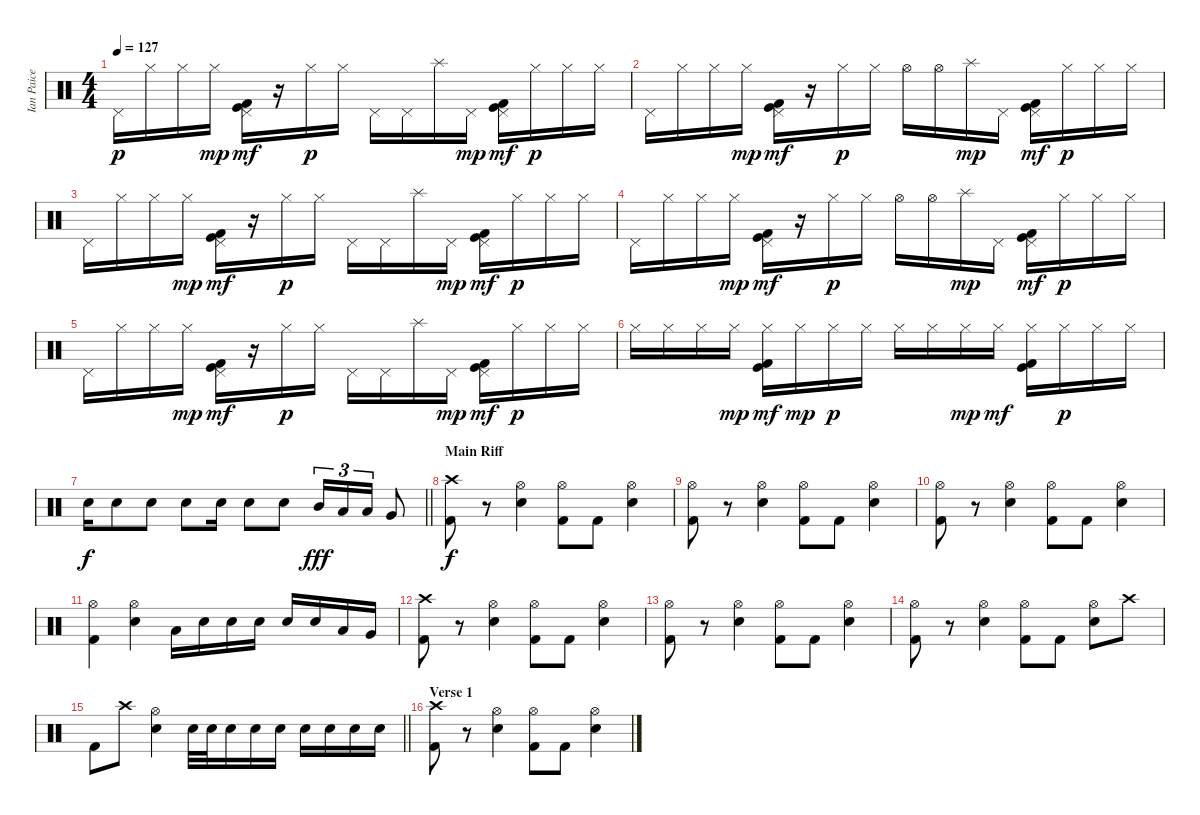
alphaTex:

\track ("Ian Paice" "Ian Paice") {instrument percussion}
\staff {score}
\articulation defaults
\ts (4 4)
\tempo 127
\clef neutral
\ks c "Pedal Hi-Hat (hit)".16{dy p} "Hi-Hat (closed)".16 "Hi-Hat (closed)".16 "Hi-Hat (closed)".16{dy mp}
("Pedal Hi-Hat (hit)" "Kick (hit)" "Kick (hit) 2").16{dy mf} r.16 "Hi-Hat (closed)".16{dy p} "Hi-Hat (closed)".16 "Pedal Hi-Hat (hit)".16 "Pedal Hi-Hat (hit)".16 "Splash (hit)".16 "Pedal Hi-Hat (hit)".16{dy mp} ("Pedal Hi-Hat (hit)" "Kick (hit)" "Kick (hit) 2").16{dy mf} "Hi-Hat (closed)".16{dy p} "Hi-Hat (closed)".16 "Hi-Hat (closed)".16 |
"Pedal Hi-Hat (hit)".16 "Hi-Hat (closed)".16 "Hi-Hat (closed)".16 "Hi-Hat (closed)".16{dy mp} ("Pedal Hi-Hat (hit)" "Kick (hit)" "Kick (hit) 2").16{dy mf} r.16 "Hi-Hat (closed)".16{dy p} "Hi-Hat (closed)".16 "Hi-Hat (open)".16 "Hi-Hat (open)".16 "Splash (hit)".16{dy mp} "Pedal Hi-Hat (hit)".16 ("Pedal Hi-Hat (hit)" "Kick (hit)" "Kick (hit) 2").16{dy mf} "Hi-Hat (closed)".16{dy p} "Hi-Hat (closed)".16 "Hi-Hat (closed)".16 |
"Pedal Hi-Hat (hit)".16 "Hi-Hat (closed)".16 "Hi-Hat (closed)".16 "Hi-Hat (closed)".16{dy mp} ("Pedal Hi-Hat (hit)" "Kick (hit)" "Kick (hit) 2").16{dy mf} r.16 "Hi-Hat (closed)".16{dy p} "Hi-Hat (closed)".16 "Pedal Hi-Hat (hit)".16 "Pedal Hi-Hat (hit)".16 "Splash (hit)".16 "Pedal Hi-Hat (hit)".16{dy mp} ("Pedal Hi-Hat (hit)" "Kick (hit)" "Kick (hit) 2").16{dy mf} "Hi-Hat (closed)".16{dy p} "Hi-Hat (closed)".16 "Hi-Hat (closed)".16 |
"Pedal Hi-Hat (hit)".16 "Hi-Hat (closed)".16 "Hi-Hat (closed)".16 "Hi-Hat (closed)".16{dy mp} ("Pedal Hi-Hat (hit)" "Kick (hit)" "Kick (hit) 2").16{dy mf} r.16 "Hi-Hat (closed)".16{dy p} "Hi-Hat (closed)".16 "Hi-Hat (open)".16 "Hi-Hat (open)".16 "Splash (hit)".16{dy mp} "Pedal Hi-Hat (hit)".16 ("Pedal Hi-Hat (hit)" "Kick (hit)" "Kick (hit) 2").16{dy mf} "Hi-Hat (closed)".16{dy p} "Hi-Hat (closed)".16 "Hi-Hat (closed)".16 |
"Pedal Hi-Hat (hit)".16 "Hi-Hat (closed)".16 "Hi-Hat (closed)".16 "Hi-Hat (closed)".16{dy mp} ("Pedal Hi-Hat (hit)" "Kick (hit)" "Kick (hit) 2").16{dy mf} r.16 "Hi-Hat (closed)".16{dy p} "Hi-Hat (closed)".16 "Pedal Hi-Hat (hit)".16 "Pedal Hi-Hat (hit)".16 "Splash (hit)".16 "Pedal Hi-Hat (hit)".16{dy mp} ("Pedal Hi-Hat (hit)" "Kick (hit)" "Kick (hit) 2").16{dy mf} "Hi-Hat (closed)".16{dy p} "Hi-Hat (closed)".16 "Hi-Hat (closed)".16 |
"Hi-Hat (closed)".16 "Hi-Hat (closed)".16 "Hi-Hat (closed)".16 "Hi-Hat (closed)".16{dy mp} ("Hi-Hat (closed)" "Kick (hit)" "Kick (hit) 2").16{dy mf} "Hi-Hat (closed)".16{dy mp} "Hi-Hat (closed)".16{dy p} "Hi-Hat (closed)".16 "Hi-Hat (closed)".16 "Hi-Hat (closed)".16 "Hi-Hat (closed)".16{dy mp} "Hi-Hat (closed)".16{dy mf} ("Hi-Hat (closed)" "Kick (hit)" "Kick (hit) 2").16 "Hi-Hat (closed)".16{dy p} "Hi-Hat (closed)".16 "Hi-Hat (closed)".16 |
\barLineRight lightlight "Snare (hit) 2".16{dy f} "Snare (hit) 2".8 "Snare (hit) 2".8 "Snare (hit) 2".8 "Snare (hit) 2".16 "Snare (hit) 2".8 "Snare (hit) 2".8 "Mid Tom (hit)".16{tu (3 2) dy fff} "Low Tom (hit)".16{tu (3 2)} "Low Tom (hit)".16{tu (3 2)} "Very Low Tom (hit)".8
|
\section ("" "Main Riff")
("Crash high (hit)" "Kick (hit) 2").8{dy f} r.8 ("Hi-Hat (open)" "Snare (hit) 2").4 ("Hi-Hat (open)" "Kick (hit) 2").8 "Kick (hit) 2".8 ("Hi-Hat (open)" "Snare (hit) 2").4 |
("Hi-Hat (open)" "Kick (hit) 2").8 r.8 ("Hi-Hat (open)" "Snare (hit) 2").4 ("Hi-Hat (open)" "Kick (hit) 2").8 "Kick (hit) 2".8 ("Hi-Hat (open)" "Snare (hit) 2").4 |
("Hi-Hat (open)" "Kick (hit) 2").8 r.8 ("Hi-Hat (open)" "Snare (hit) 2").4 ("Hi-Hat (open)" "Kick (hit) 2").8 "Kick (hit) 2".8 ("Hi-Hat (open)" "Snare (hit) 2").4 |
("Hi-Hat (open)" "Kick (hit) 2").4 ("Hi-Hat (open)" "Snare (hit) 2").4 "Low Tom (hit)".16 "Snare (hit) 2".16 "Snare (hit) 2".16 "Snare (hit) 2".16 "Snare (hit) 2".16 "Snare (hit) 2".16 "Low Tom (hit)".16 "Very Low Tom (hit)".16 |
("Crash high (hit)" "Kick (hit) 2").8 r.8 ("Hi-Hat (open)" "Snare (hit) 2").4 ("Hi-Hat (open)" "Kick (hit) 2").8 "Kick (hit) 2".8 ("Hi-Hat (open)" "Snare (hit) 2").4 |
("Hi-Hat (open)" "Kick (hit) 2").8 r.8 ("Hi-Hat (open)" "Snare (hit) 2").4 ("Hi-Hat (open)" "Kick (hit) 2").8 "Kick (hit) 2".8 ("Hi-Hat (open)" "Snare (hit) 2").4 |
("Hi-Hat (open)" "Kick (hit) 2").8 r.8 ("Hi-Hat (open)" "Snare (hit) 2").4 ("Hi-Hat (open)" "Kick (hit) 2").8 "Kick (hit) 2".8 ("Hi-Hat (open)" "Snare (hit) 2").8 "Crash high (hit)".8 |
\barLineRight lightlight "Kick (hit) 2".8 "Crash high (hit)".8
("Hi-Hat (open)" "Snare (hit) 2").4 "Snare (hit) 2".32 "Snare (hit) 2".32 "Snare (hit) 2".16 "Snare (hit) 2".16 "Snare (hit) 2".16 "Snare (hit) 2".16 "Snare (hit) 2".16 "Snare (hit) 2".16 "Snare (hit) 2".16 |
\section ("" "Verse 1")
("Crash high (hit)" "Kick (hit) 2").8 r.8 ("Hi-Hat (open)" "Snare (hit) 2").4 ("Hi-Hat (open)" "Kick (hit) 2").8 "Kick (hit) 2".8 ("Hi-Hat (open)" "Snare (hit) 2").4
